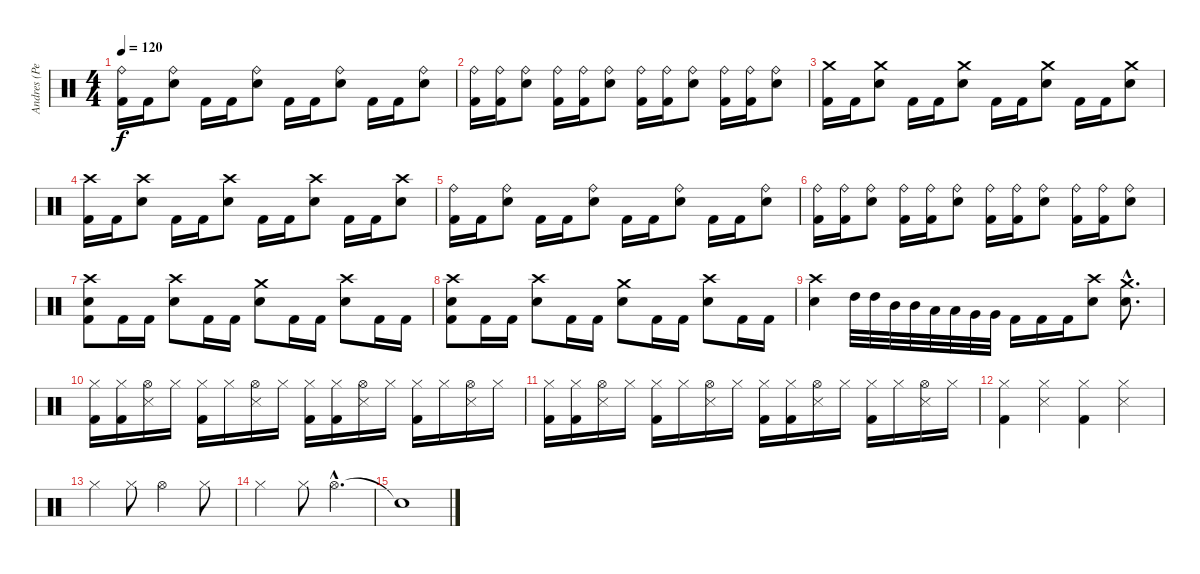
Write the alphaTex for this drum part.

\track ("Andres (Percussion)" "Andres (Pe") {instrument percussion}
\staff {score}
\articulation defaults
\ts (4 4)
\tempo 120
\clef neutral
\ks c
("Ride (bell)" "Kick (hit) 2").16{dy f} "Kick (hit) 2".16 ("Ride (bell)" "Electric Snare (hit)").8 "Kick (hit) 2".16 "Kick (hit) 2".16 ("Ride (bell)" "Electric Snare (hit)").8 "Kick (hit) 2".16 "Kick (hit) 2".16 ("Ride (bell)" "Electric Snare (hit)").8 "Kick (hit) 2".16 "Kick (hit) 2".16 ("Ride (bell)" "Electric Snare (hit)").8 |
("Ride (bell)" "Kick (hit) 2").16 ("Ride (bell)" "Kick (hit) 2").16 ("Ride (bell)" "Electric Snare (hit)").8 ("Ride (bell)" "Kick (hit) 2").16 ("Ride (bell)" "Kick (hit) 2").16 ("Ride (bell)" "Electric Snare (hit)").8 ("Ride (bell)" "Kick (hit) 2").16 ("Ride (bell)" "Kick (hit) 2").16 ("Ride (bell)" "Electric Snare (hit)").8 ("Ride (bell)" "Kick (hit) 2").16 ("Ride (bell)" "Kick (hit) 2").16 ("Ride (bell)" "Electric Snare (hit)").8 |
("Crash medium (hit)" "Kick (hit) 2").16 "Kick (hit) 2".16 ("Crash medium (hit)" "Electric Snare (hit)").8 "Kick (hit) 2".16 "Kick (hit) 2".16 ("Crash medium (hit)" "Electric Snare (hit)").8 "Kick (hit) 2".16 "Kick (hit) 2".16 ("Crash medium (hit)" "Electric Snare (hit)").8 "Kick (hit) 2".16 "Kick (hit) 2".16 ("Crash medium (hit)" "Electric Snare (hit)").8 |
("Crash high (hit)" "Kick (hit) 2").16 "Kick (hit) 2".16 ("Crash high (hit)" "Electric Snare (hit)").8 "Kick (hit) 2".16 "Kick (hit) 2".16 ("Crash high (hit)" "Electric Snare (hit)").8 "Kick (hit) 2".16 "Kick (hit) 2".16 ("Crash high (hit)" "Electric Snare (hit)").8 "Kick (hit) 2".16 "Kick (hit) 2".16 ("Crash high (hit)" "Electric Snare (hit)").8 |
("Ride (bell)" "Kick (hit) 2").16 "Kick (hit) 2".16 ("Ride (bell)" "Electric Snare (hit)").8 "Kick (hit) 2".16 "Kick (hit) 2".16 ("Ride (bell)" "Electric Snare (hit)").8 "Kick (hit) 2".16 "Kick (hit) 2".16 ("Ride (bell)" "Electric Snare (hit)").8 "Kick (hit) 2".16 "Kick (hit) 2".16 ("Ride (bell)" "Electric Snare (hit)").8 |
("Ride (bell)" "Kick (hit) 2").16 ("Ride (bell)" "Kick (hit) 2").16 ("Ride (bell)" "Electric Snare (hit)").8 ("Ride (bell)" "Kick (hit) 2").16 ("Ride (bell)" "Kick (hit) 2").16 ("Ride (bell)" "Electric Snare (hit)").8 ("Ride (bell)" "Kick (hit) 2").16 ("Ride (bell)" "Kick (hit) 2").16 ("Ride (bell)" "Electric Snare (hit)").8 ("Ride (bell)" "Kick (hit) 2").16 ("Ride (bell)" "Kick (hit) 2").16 ("Ride (bell)" "Electric Snare (hit)").8 |
("Crash high (hit)" "Electric Snare (hit)" "Kick (hit) 2").8 "Kick (hit) 2".16 "Kick (hit) 2".16 ("Crash high (hit)" "Electric Snare (hit)").8 "Kick (hit) 2".16 "Kick (hit) 2".16 ("Crash medium (hit)" "Electric Snare (hit)").8 "Kick (hit) 2".16 "Kick (hit) 2".16 ("Crash high (hit)" "Electric Snare (hit)").8 "Kick (hit) 2".16 "Kick (hit) 2".16 |
("Crash high (hit)" "Electric Snare (hit)" "Kick (hit) 2").8 "Kick (hit) 2".16 "Kick (hit) 2".16 ("Crash high (hit)" "Electric Snare (hit)").8 "Kick (hit) 2".16 "Kick (hit) 2".16 ("Crash medium (hit)" "Electric Snare (hit)").8 "Kick (hit) 2".16 "Kick (hit) 2".16 ("Crash high (hit)" "Electric Snare (hit)").8 "Kick (hit) 2".16 "Kick (hit) 2".16 |
("Crash high (hit)" "Electric Snare (hit)").4 "High Tom (hit)".32 "High Tom (hit)".32 "Mid Tom (hit)".32 "Mid Tom (hit)".32 "Low Tom (hit)".32 "Low Tom (hit)".32 "Very Low Tom (hit)".32 "Very Low Tom (hit)".32 "Kick (hit) 2".16 "Kick (hit) 2".16 "Kick (hit) 2".16 ("Crash high (hit)" "Electric Snare (hit)").8 ("Crash medium (hit)"{hac} "Electric Snare (hit)"{hac}).8{d} |
("Hi-Hat (closed)" "Kick (hit) 2").16 ("Hi-Hat (closed)" "Kick (hit) 2").16 ("Hi-Hat (open)" "Snare (side stick) 3").16 "Hi-Hat (closed)".16 ("Hi-Hat (closed)" "Kick (hit) 2").16 "Hi-Hat (closed)".16 ("Hi-Hat (open)" "Snare (side stick) 3").16 "Hi-Hat (closed)".16 ("Hi-Hat (closed)" "Kick (hit) 2").16 ("Hi-Hat (closed)" "Kick (hit) 2").16 ("Hi-Hat (open)" "Snare (side stick) 3").16 "Hi-Hat (closed)".16 ("Hi-Hat (closed)" "Kick (hit) 2").16 "Hi-Hat (closed)".16 ("Hi-Hat (open)" "Snare (side stick) 3").16 "Hi-Hat (closed)".16 |
("Hi-Hat (closed)" "Kick (hit) 2").16 ("Hi-Hat (closed)" "Kick (hit) 2").16 ("Hi-Hat (open)" "Snare (side stick) 3").16 "Hi-Hat (closed)".16 ("Hi-Hat (closed)" "Kick (hit) 2").16 "Hi-Hat (closed)".16 ("Hi-Hat (open)" "Snare (side stick) 3").16 "Hi-Hat (closed)".16 ("Hi-Hat (closed)" "Kick (hit) 2").16 ("Hi-Hat (closed)" "Kick (hit) 2").16 ("Hi-Hat (open)" "Snare (side stick) 3").16 "Hi-Hat (closed)".16 ("Hi-Hat (closed)" "Kick (hit) 2").16 "Hi-Hat (closed)".16 ("Hi-Hat (open)" "Snare (side stick) 3").16 "Hi-Hat (closed)".16 |
("Hi-Hat (closed)" "Kick (hit) 2").4 ("Hi-Hat (closed)" "Snare (side stick) 3").4 ("Hi-Hat (closed)" "Kick (hit) 2").4 ("Hi-Hat (closed)" "Snare (side stick) 3").4 |
"Hi-Hat (closed)".4 "Hi-Hat (closed)".8 "Hi-Hat (open)".2 "Hi-Hat (closed)".8 |
"Hi-Hat (closed)".2 "Hi-Hat (closed)".8 "Hi-Hat (open)"{hac}.4{d} |
"Snare (hit)"{t}.1
